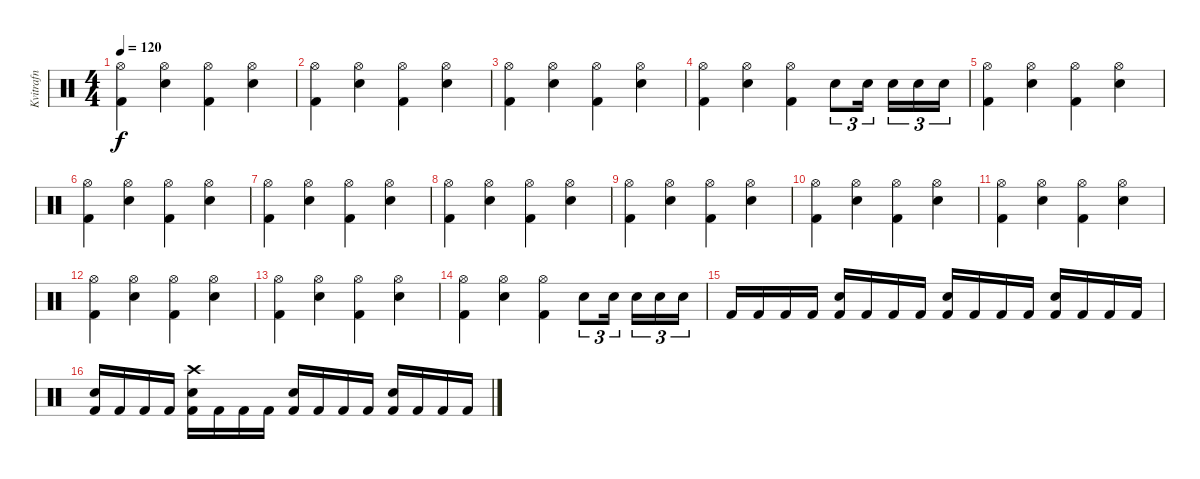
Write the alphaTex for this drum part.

\track ("Kvitrafn" "Kvitrafn") {instrument percussion}
\staff {score}
\articulation defaults
\ts (4 4)
\tempo 120
\clef neutral
\ks c
("Hi-Hat (open)" "Kick (hit) 2").4{dy f} ("Hi-Hat (open)" "Electric Snare (hit)").4 ("Hi-Hat (open)" "Kick (hit) 2").4 ("Hi-Hat (open)" "Electric Snare (hit)").4 |
("Hi-Hat (open)" "Kick (hit) 2").4 ("Hi-Hat (open)" "Electric Snare (hit)").4 ("Hi-Hat (open)" "Kick (hit) 2").4 ("Hi-Hat (open)" "Electric Snare (hit)").4 |
("Hi-Hat (open)" "Kick (hit) 2").4 ("Hi-Hat (open)" "Electric Snare (hit)").4 ("Hi-Hat (open)" "Kick (hit) 2").4 ("Hi-Hat (open)" "Electric Snare (hit)").4 |
("Hi-Hat (open)" "Kick (hit) 2").4 ("Hi-Hat (open)" "Electric Snare (hit)").4 ("Hi-Hat (open)" "Kick (hit) 2").4 "Electric Snare (hit)".8{tu (3 2)} "Electric Snare (hit)".16{tu (3 2) beam splitsecondary} "Electric Snare (hit)".16{tu (3 2)} "Electric Snare (hit)".16{tu (3 2)} "Electric Snare (hit)".16{tu (3 2)} |
("Hi-Hat (open)" "Kick (hit) 2").4 ("Hi-Hat (open)" "Electric Snare (hit)").4 ("Hi-Hat (open)" "Kick (hit) 2").4 ("Hi-Hat (open)" "Electric Snare (hit)").4 |
("Hi-Hat (open)" "Kick (hit) 2").4 ("Hi-Hat (open)" "Electric Snare (hit)").4 ("Hi-Hat (open)" "Kick (hit) 2").4 ("Hi-Hat (open)" "Electric Snare (hit)").4 |
("Hi-Hat (open)" "Kick (hit) 2").4 ("Hi-Hat (open)" "Electric Snare (hit)").4 ("Hi-Hat (open)" "Kick (hit) 2").4 ("Hi-Hat (open)" "Electric Snare (hit)").4 |
("Hi-Hat (open)" "Kick (hit) 2").4 ("Hi-Hat (open)" "Electric Snare (hit)").4 ("Hi-Hat (open)" "Kick (hit) 2").4 ("Hi-Hat (open)" "Electric Snare (hit)").4 |
("Hi-Hat (open)" "Kick (hit) 2").4 ("Hi-Hat (open)" "Electric Snare (hit)").4 ("Hi-Hat (open)" "Kick (hit) 2").4 ("Hi-Hat (open)" "Electric Snare (hit)").4 |
("Hi-Hat (open)" "Kick (hit) 2").4 ("Hi-Hat (open)" "Electric Snare (hit)").4 ("Hi-Hat (open)" "Kick (hit) 2").4 ("Hi-Hat (open)" "Electric Snare (hit)").4 |
("Hi-Hat (open)" "Kick (hit) 2").4 ("Hi-Hat (open)" "Electric Snare (hit)").4 ("Hi-Hat (open)" "Kick (hit) 2").4 ("Hi-Hat (open)" "Electric Snare (hit)").4 |
("Hi-Hat (open)" "Kick (hit) 2").4 ("Hi-Hat (open)" "Electric Snare (hit)").4 ("Hi-Hat (open)" "Kick (hit) 2").4 ("Hi-Hat (open)" "Electric Snare (hit)").4 |
("Hi-Hat (open)" "Kick (hit) 2").4 ("Hi-Hat (open)" "Electric Snare (hit)").4 ("Hi-Hat (open)" "Kick (hit) 2").4 ("Hi-Hat (open)" "Electric Snare (hit)").4 |
("Hi-Hat (open)" "Kick (hit) 2").4 ("Hi-Hat (open)" "Electric Snare (hit)").4 ("Hi-Hat (open)" "Kick (hit) 2").4 "Electric Snare (hit)".8{tu (3 2)} "Electric Snare (hit)".16{tu (3 2) beam splitsecondary} "Electric Snare (hit)".16{tu (3 2)} "Electric Snare (hit)".16{tu (3 2)} "Electric Snare (hit)".16{tu (3 2)} |
"Kick (hit) 2".16 "Kick (hit) 2".16 "Kick (hit) 2".16 "Kick (hit) 2".16 ("Electric Snare (hit)" "Kick (hit) 2").16 "Kick (hit) 2".16 "Kick (hit) 2".16 "Kick (hit) 2".16 ("Electric Snare (hit)" "Kick (hit) 2").16 "Kick (hit) 2".16 "Kick (hit) 2".16 "Kick (hit) 2".16 ("Electric Snare (hit)" "Kick (hit) 2").16 "Kick (hit) 2".16 "Kick (hit) 2".16 "Kick (hit) 2".16 |
("Electric Snare (hit)" "Kick (hit) 2").16 "Kick (hit) 2".16 "Kick (hit) 2".16 "Kick (hit) 2".16 ("Crash high (hit)" "Electric Snare (hit)" "Kick (hit) 2").16 "Kick (hit) 2".16 "Kick (hit) 2".16 "Kick (hit) 2".16 ("Electric Snare (hit)" "Kick (hit) 2").16 "Kick (hit) 2".16 "Kick (hit) 2".16 "Kick (hit) 2".16 ("Electric Snare (hit)" "Kick (hit) 2").16 "Kick (hit) 2".16 "Kick (hit) 2".16 "Kick (hit) 2".16
